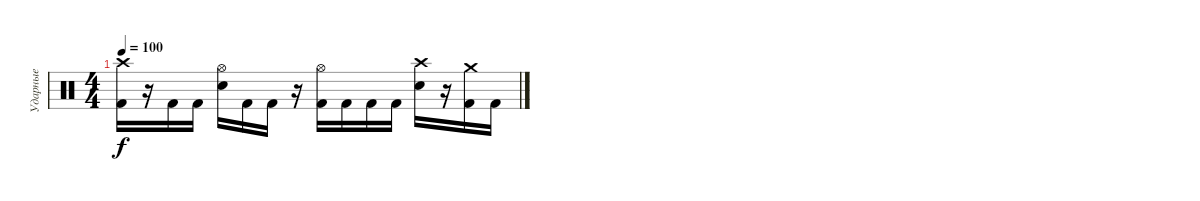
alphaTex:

\track ("Ударные" "Ударные") {instrument percussion}
\staff {score}
\articulation defaults
\ts (4 4)
\tempo 100
\clef neutral
\ks c
("Crash high (hit)" "Kick (hit) 2").16{dy f} r.16 "Kick (hit) 2".16 "Kick (hit) 2".16 ("Hi-Hat (open)" "Snare (hit) 2").16 "Kick (hit) 2".16 "Kick (hit) 2".16 r.16 ("Hi-Hat (open)" "Kick (hit) 2").16 "Kick (hit) 2".16 "Kick (hit) 2".16 "Kick (hit) 2".16 ("Crash high (hit)" "Snare (hit) 2").16 r.16 ("Crash medium (hit)" "Kick (hit) 2").16 "Kick (hit) 2".16
